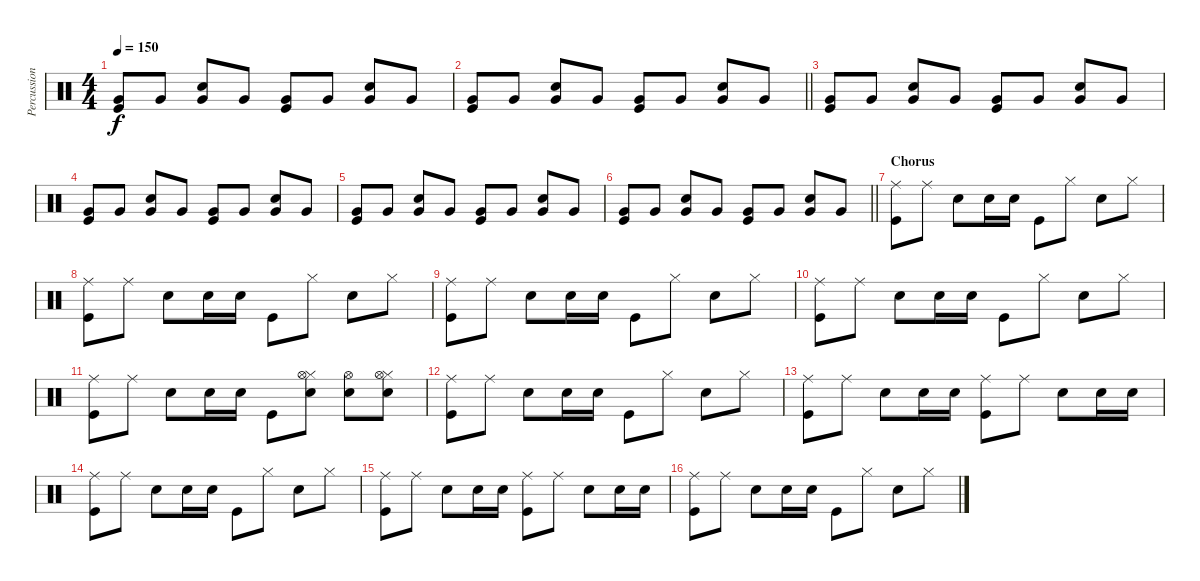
\track ("Percussion" "Percussion") {instrument percussion}
\staff {score}
\articulation defaults
\ts (4 4)
\tempo 150
\clef neutral
\ks c
("Very Low Tom (hit)" "Kick (hit)").8{dy f} "Very Low Tom (hit)".8 ("Very Low Tom (hit)" "Snare (hit) 2").8 "Very Low Tom (hit)".8 ("Very Low Tom (hit)" "Kick (hit)").8 "Very Low Tom (hit)".8 ("Very Low Tom (hit)" "Snare (hit) 2").8 "Very Low Tom (hit)".8 |
\barLineRight lightlight
("Very Low Tom (hit)" "Kick (hit)").8 "Very Low Tom (hit)".8 ("Very Low Tom (hit)" "Snare (hit) 2").8 "Very Low Tom (hit)".8 ("Very Low Tom (hit)" "Kick (hit)").8 "Very Low Tom (hit)".8 ("Very Low Tom (hit)" "Snare (hit) 2").8 "Very Low Tom (hit)".8 |
("Very Low Tom (hit)" "Kick (hit)").8 "Very Low Tom (hit)".8 ("Very Low Tom (hit)" "Snare (hit) 2").8 "Very Low Tom (hit)".8 ("Very Low Tom (hit)" "Kick (hit)").8 "Very Low Tom (hit)".8 ("Very Low Tom (hit)" "Snare (hit) 2").8 "Very Low Tom (hit)".8 |
("Very Low Tom (hit)" "Kick (hit)").8 "Very Low Tom (hit)".8 ("Very Low Tom (hit)" "Snare (hit) 2").8 "Very Low Tom (hit)".8 ("Very Low Tom (hit)" "Kick (hit)").8 "Very Low Tom (hit)".8 ("Very Low Tom (hit)" "Snare (hit) 2").8 "Very Low Tom (hit)".8 |
("Very Low Tom (hit)" "Kick (hit)").8 "Very Low Tom (hit)".8 ("Very Low Tom (hit)" "Snare (hit) 2").8 "Very Low Tom (hit)".8 ("Very Low Tom (hit)" "Kick (hit)").8 "Very Low Tom (hit)".8 ("Very Low Tom (hit)" "Snare (hit) 2").8 "Very Low Tom (hit)".8 |
\barLineRight lightlight
("Very Low Tom (hit)" "Kick (hit)").8 "Very Low Tom (hit)".8 ("Very Low Tom (hit)" "Snare (hit) 2").8 "Very Low Tom (hit)".8 ("Very Low Tom (hit)" "Kick (hit)").8 "Very Low Tom (hit)".8 ("Very Low Tom (hit)" "Snare (hit) 2").8 "Very Low Tom (hit)".8 |
\section ("" "Chorus")
("Ride (middle)" "Kick (hit)").8 "Ride (middle)".8 "Snare (hit) 2".8 "Snare (hit) 2".16 "Snare (hit) 2".16 "Kick (hit)".8 "Hi-Hat (closed)".8 "Snare (hit) 2".8 "Hi-Hat (closed)".8 |
("Ride (middle)" "Kick (hit)").8 "Ride (middle)".8 "Snare (hit) 2".8 "Snare (hit) 2".16 "Snare (hit) 2".16 "Kick (hit)".8 "Hi-Hat (closed)".8 "Snare (hit) 2".8 "Hi-Hat (closed)".8 |
("Ride (middle)" "Kick (hit)").8 "Ride (middle)".8 "Snare (hit) 2".8 "Snare (hit) 2".16 "Snare (hit) 2".16 "Kick (hit)".8 "Hi-Hat (closed)".8 "Snare (hit) 2".8 "Hi-Hat (closed)".8 |
("Ride (middle)" "Kick (hit)").8 "Ride (middle)".8 "Snare (hit) 2".8 "Snare (hit) 2".16 "Snare (hit) 2".16 "Kick (hit)".8 "Hi-Hat (closed)".8 "Snare (hit) 2".8 "Hi-Hat (closed)".8 |
("Ride (middle)" "Kick (hit)").8 "Ride (middle)".8 "Snare (hit) 2".8 "Snare (hit) 2".16 "Snare (hit) 2".16 "Kick (hit)".8 ("Hi-Hat (closed)" "Snare (hit) 2" "Hi-Hat (open)").8 ("Snare (hit) 2" "Hi-Hat (open)").8 ("Hi-Hat (closed)" "Snare (hit) 2" "Hi-Hat (open)").8 |
("Ride (middle)" "Kick (hit)").8 "Ride (middle)".8 "Snare (hit) 2".8 "Snare (hit) 2".16 "Snare (hit) 2".16 "Kick (hit)".8 "Hi-Hat (closed)".8 "Snare (hit) 2".8 "Hi-Hat (closed)".8 |
("Ride (middle)" "Kick (hit)").8 "Ride (middle)".8 "Snare (hit) 2".8 "Snare (hit) 2".16 "Snare (hit) 2".16 ("Ride (middle)" "Kick (hit)").8 "Ride (middle)".8 "Snare (hit) 2".8 "Snare (hit) 2".16 "Snare (hit) 2".16 |
("Ride (middle)" "Kick (hit)").8 "Ride (middle)".8 "Snare (hit) 2".8 "Snare (hit) 2".16 "Snare (hit) 2".16 "Kick (hit)".8 "Hi-Hat (closed)".8 "Snare (hit) 2".8 "Hi-Hat (closed)".8 |
("Ride (middle)" "Kick (hit)").8 "Ride (middle)".8 "Snare (hit) 2".8 "Snare (hit) 2".16 "Snare (hit) 2".16 ("Ride (middle)" "Kick (hit)").8 "Ride (middle)".8 "Snare (hit) 2".8 "Snare (hit) 2".16 "Snare (hit) 2".16 |
("Ride (middle)" "Kick (hit)").8 "Ride (middle)".8 "Snare (hit) 2".8 "Snare (hit) 2".16 "Snare (hit) 2".16 "Kick (hit)".8 "Hi-Hat (closed)".8 "Snare (hit) 2".8 "Hi-Hat (closed)".8
